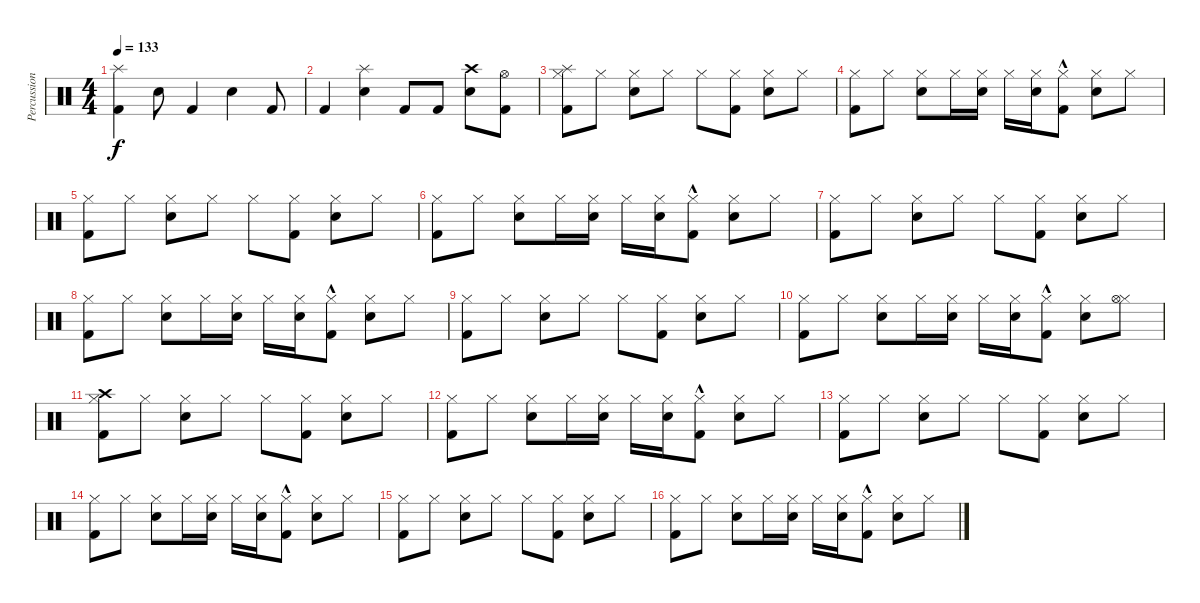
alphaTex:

\track ("Percussion" "Percussion") {instrument percussion}
\staff {score}
\articulation defaults
\ts (4 4)
\tempo 133
\clef neutral
\ks c
("Splash (hit)" "Kick (hit) 2").4{dy f} "Snare (hit) 2".8 "Kick (hit) 2".4 "Snare (hit) 2".4 "Kick (hit) 2".8 |
"Kick (hit) 2".4 ("Splash (hit)" "Snare (hit) 2").4 "Kick (hit) 2".8 "Kick (hit) 2".8 ("Crash high (hit)" "Snare (hit) 2").8 ("Hi-Hat (open)" "Kick (hit) 2").8 |
("Hi-Hat (closed)" "Splash (hit)" "Kick (hit) 2").8 "Hi-Hat (closed)".8 ("Hi-Hat (closed)" "Snare (hit) 2").8 "Hi-Hat (closed)".8 "Hi-Hat (closed)".8 ("Hi-Hat (closed)" "Kick (hit) 2").8 ("Hi-Hat (closed)" "Snare (hit) 2").8 "Hi-Hat (closed)".8 |
("Hi-Hat (closed)" "Kick (hit) 2").8 "Hi-Hat (closed)".8 ("Hi-Hat (closed)" "Snare (hit) 2").8 "Hi-Hat (closed)".16 ("Hi-Hat (closed)" "Snare (hit) 2").16 "Hi-Hat (closed)".16 ("Hi-Hat (closed)" "Snare (hit) 2").16 ("Hi-Hat (closed)" "Kick (hit) 2"{hac}).8 ("Hi-Hat (closed)" "Snare (hit) 2").8 "Hi-Hat (closed)".8 |
("Hi-Hat (closed)" "Kick (hit) 2").8 "Hi-Hat (closed)".8 ("Hi-Hat (closed)" "Snare (hit) 2").8 "Hi-Hat (closed)".8 "Hi-Hat (closed)".8 ("Hi-Hat (closed)" "Kick (hit) 2").8 ("Hi-Hat (closed)" "Snare (hit) 2").8 "Hi-Hat (closed)".8 |
("Hi-Hat (closed)" "Kick (hit) 2").8 "Hi-Hat (closed)".8 ("Hi-Hat (closed)" "Snare (hit) 2").8 "Hi-Hat (closed)".16 ("Hi-Hat (closed)" "Snare (hit) 2").16 "Hi-Hat (closed)".16 ("Hi-Hat (closed)" "Snare (hit) 2").16 ("Hi-Hat (closed)" "Kick (hit) 2"{hac}).8 ("Hi-Hat (closed)" "Snare (hit) 2").8 "Hi-Hat (closed)".8 |
("Hi-Hat (closed)" "Kick (hit) 2").8 "Hi-Hat (closed)".8 ("Hi-Hat (closed)" "Snare (hit) 2").8 "Hi-Hat (closed)".8 "Hi-Hat (closed)".8 ("Hi-Hat (closed)" "Kick (hit) 2").8 ("Hi-Hat (closed)" "Snare (hit) 2").8 "Hi-Hat (closed)".8 |
("Hi-Hat (closed)" "Kick (hit) 2").8 "Hi-Hat (closed)".8 ("Hi-Hat (closed)" "Snare (hit) 2").8 "Hi-Hat (closed)".16 ("Hi-Hat (closed)" "Snare (hit) 2").16 "Hi-Hat (closed)".16 ("Hi-Hat (closed)" "Snare (hit) 2").16 ("Hi-Hat (closed)" "Kick (hit) 2"{hac}).8 ("Hi-Hat (closed)" "Snare (hit) 2").8 "Hi-Hat (closed)".8 |
("Hi-Hat (closed)" "Kick (hit) 2").8 "Hi-Hat (closed)".8 ("Hi-Hat (closed)" "Snare (hit) 2").8 "Hi-Hat (closed)".8 "Hi-Hat (closed)".8 ("Hi-Hat (closed)" "Kick (hit) 2").8 ("Hi-Hat (closed)" "Snare (hit) 2").8 "Hi-Hat (closed)".8 |
("Hi-Hat (closed)" "Kick (hit) 2").8 "Hi-Hat (closed)".8 ("Hi-Hat (closed)" "Snare (hit) 2").8 "Hi-Hat (closed)".16 ("Hi-Hat (closed)" "Snare (hit) 2").16 "Hi-Hat (closed)".16 ("Hi-Hat (closed)" "Snare (hit) 2").16 ("Hi-Hat (closed)" "Kick (hit) 2"{hac}).8 ("Hi-Hat (closed)" "Snare (hit) 2").8 ("Hi-Hat (closed)" "Hi-Hat (open)").8 |
("Hi-Hat (closed)" "Crash high (hit)" "Kick (hit) 2").8 "Hi-Hat (closed)".8 ("Hi-Hat (closed)" "Snare (hit) 2").8 "Hi-Hat (closed)".8 "Hi-Hat (closed)".8 ("Hi-Hat (closed)" "Kick (hit) 2").8 ("Hi-Hat (closed)" "Snare (hit) 2").8 "Hi-Hat (closed)".8 |
("Hi-Hat (closed)" "Kick (hit) 2").8 "Hi-Hat (closed)".8 ("Hi-Hat (closed)" "Snare (hit) 2").8 "Hi-Hat (closed)".16 ("Hi-Hat (closed)" "Snare (hit) 2").16 "Hi-Hat (closed)".16 ("Hi-Hat (closed)" "Snare (hit) 2").16 ("Hi-Hat (closed)" "Kick (hit) 2"{hac}).8 ("Hi-Hat (closed)" "Snare (hit) 2").8 "Hi-Hat (closed)".8 |
("Hi-Hat (closed)" "Kick (hit) 2").8 "Hi-Hat (closed)".8 ("Hi-Hat (closed)" "Snare (hit) 2").8 "Hi-Hat (closed)".8 "Hi-Hat (closed)".8 ("Hi-Hat (closed)" "Kick (hit) 2").8 ("Hi-Hat (closed)" "Snare (hit) 2").8 "Hi-Hat (closed)".8 |
("Hi-Hat (closed)" "Kick (hit) 2").8 "Hi-Hat (closed)".8 ("Hi-Hat (closed)" "Snare (hit) 2").8 "Hi-Hat (closed)".16 ("Hi-Hat (closed)" "Snare (hit) 2").16 "Hi-Hat (closed)".16 ("Hi-Hat (closed)" "Snare (hit) 2").16 ("Hi-Hat (closed)" "Kick (hit) 2"{hac}).8 ("Hi-Hat (closed)" "Snare (hit) 2").8 "Hi-Hat (closed)".8 |
("Hi-Hat (closed)" "Kick (hit) 2").8 "Hi-Hat (closed)".8 ("Hi-Hat (closed)" "Snare (hit) 2").8 "Hi-Hat (closed)".8 "Hi-Hat (closed)".8 ("Hi-Hat (closed)" "Kick (hit) 2").8 ("Hi-Hat (closed)" "Snare (hit) 2").8 "Hi-Hat (closed)".8 |
("Hi-Hat (closed)" "Kick (hit) 2").8 "Hi-Hat (closed)".8 ("Hi-Hat (closed)" "Snare (hit) 2").8 "Hi-Hat (closed)".16 ("Hi-Hat (closed)" "Snare (hit) 2").16 "Hi-Hat (closed)".16 ("Hi-Hat (closed)" "Snare (hit) 2").16 ("Hi-Hat (closed)" "Kick (hit) 2"{hac}).8 ("Hi-Hat (closed)" "Snare (hit) 2").8 "Hi-Hat (closed)".8
